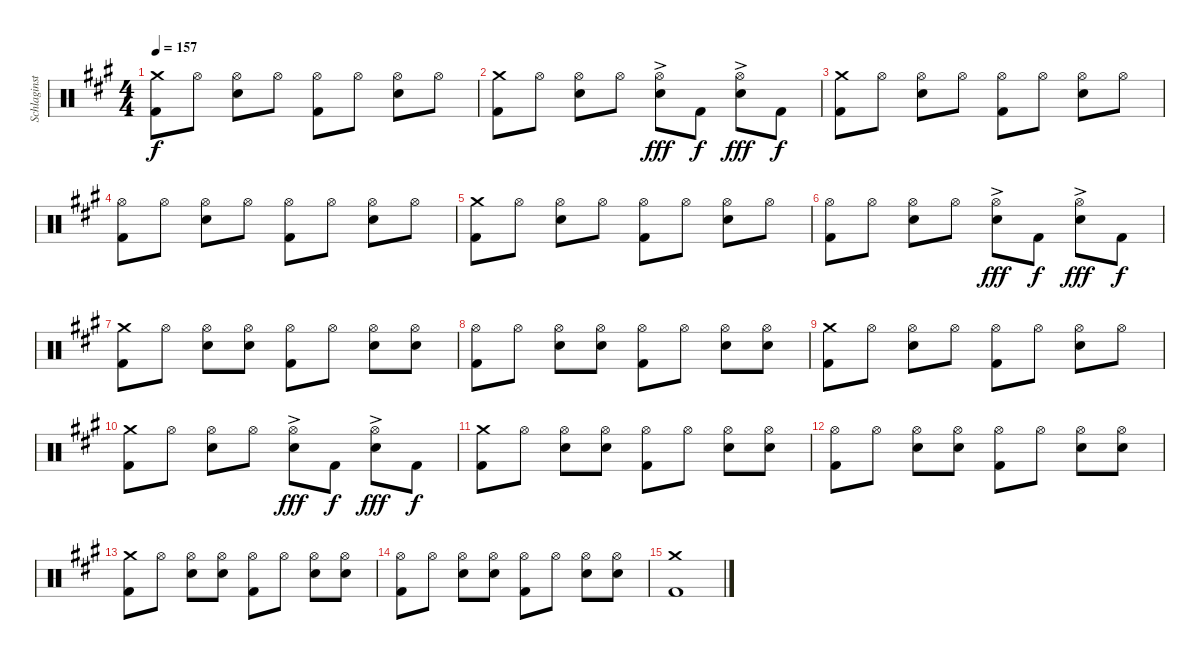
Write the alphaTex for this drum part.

\track ("Schlaginstrumente - Auswahl" "Schlaginst") {instrument percussion}
\staff {score}
\articulation defaults
\ts (4 4)
\tempo 157
\clef neutral
\ks f#minor
("Crash medium (hit)" "Kick (hit) 2").8{dy f} "Hi-Hat (open)".8 ("Hi-Hat (open)" "Electric Snare (hit)").8 "Hi-Hat (open)".8 ("Hi-Hat (open)" "Kick (hit) 2").8 "Hi-Hat (open)".8 ("Hi-Hat (open)" "Electric Snare (hit)").8 "Hi-Hat (open)".8 |
("Crash medium (hit)" "Kick (hit) 2").8 "Hi-Hat (open)".8 ("Hi-Hat (open)" "Electric Snare (hit)").8 "Hi-Hat (open)".8 ("Hi-Hat (open)" "Electric Snare (hit)"{ac}).8{dy fff} "Kick (hit) 2".8{dy f} ("Hi-Hat (open)" "Electric Snare (hit)"{ac}).8{dy fff} "Kick (hit) 2".8{dy f} |
("Crash medium (hit)" "Kick (hit) 2").8 "Hi-Hat (open)".8 ("Hi-Hat (open)" "Electric Snare (hit)").8 "Hi-Hat (open)".8 ("Hi-Hat (open)" "Kick (hit) 2").8 "Hi-Hat (open)".8 ("Hi-Hat (open)" "Electric Snare (hit)").8 "Hi-Hat (open)".8 |
("Hi-Hat (open)" "Kick (hit) 2").8 "Hi-Hat (open)".8 ("Hi-Hat (open)" "Electric Snare (hit)").8 "Hi-Hat (open)".8 ("Hi-Hat (open)" "Kick (hit) 2").8 "Hi-Hat (open)".8 ("Hi-Hat (open)" "Electric Snare (hit)").8 "Hi-Hat (open)".8 |
("Crash medium (hit)" "Kick (hit) 2").8 "Hi-Hat (open)".8 ("Hi-Hat (open)" "Electric Snare (hit)").8 "Hi-Hat (open)".8 ("Hi-Hat (open)" "Kick (hit) 2").8 "Hi-Hat (open)".8 ("Hi-Hat (open)" "Electric Snare (hit)").8 "Hi-Hat (open)".8 |
("Hi-Hat (open)" "Kick (hit) 2").8 "Hi-Hat (open)".8 ("Hi-Hat (open)" "Electric Snare (hit)").8 "Hi-Hat (open)".8 ("Hi-Hat (open)" "Electric Snare (hit)"{ac}).8{dy fff} "Kick (hit) 2".8{dy f} ("Hi-Hat (open)" "Electric Snare (hit)"{ac}).8{dy fff} "Kick (hit) 2".8{dy f} |
("Crash medium (hit)" "Kick (hit) 2").8 "Hi-Hat (open)".8 ("Hi-Hat (open)" "Electric Snare (hit)").8 ("Hi-Hat (open)" "Electric Snare (hit)").8 ("Hi-Hat (open)" "Kick (hit) 2").8 "Hi-Hat (open)".8 ("Hi-Hat (open)" "Electric Snare (hit)").8 ("Hi-Hat (open)" "Electric Snare (hit)").8 |
("Hi-Hat (open)" "Kick (hit) 2").8 "Hi-Hat (open)".8 ("Hi-Hat (open)" "Electric Snare (hit)").8 ("Hi-Hat (open)" "Electric Snare (hit)").8 ("Hi-Hat (open)" "Kick (hit) 2").8 "Hi-Hat (open)".8 ("Hi-Hat (open)" "Electric Snare (hit)").8 ("Hi-Hat (open)" "Electric Snare (hit)").8 |
("Crash medium (hit)" "Kick (hit) 2").8 "Hi-Hat (open)".8 ("Hi-Hat (open)" "Electric Snare (hit)").8 "Hi-Hat (open)".8 ("Hi-Hat (open)" "Kick (hit) 2").8 "Hi-Hat (open)".8 ("Hi-Hat (open)" "Electric Snare (hit)").8 "Hi-Hat (open)".8 |
("Crash medium (hit)" "Kick (hit) 2").8 "Hi-Hat (open)".8 ("Hi-Hat (open)" "Electric Snare (hit)").8 "Hi-Hat (open)".8 ("Hi-Hat (open)" "Electric Snare (hit)"{ac}).8{dy fff} "Kick (hit) 2".8{dy f} ("Hi-Hat (open)" "Electric Snare (hit)"{ac}).8{dy fff} "Kick (hit) 2".8{dy f} |
("Crash medium (hit)" "Kick (hit) 2").8 "Hi-Hat (open)".8 ("Hi-Hat (open)" "Electric Snare (hit)").8 ("Hi-Hat (open)" "Electric Snare (hit)").8 ("Hi-Hat (open)" "Kick (hit) 2").8 "Hi-Hat (open)".8 ("Hi-Hat (open)" "Electric Snare (hit)").8 ("Hi-Hat (open)" "Electric Snare (hit)").8 |
("Hi-Hat (open)" "Kick (hit) 2").8 "Hi-Hat (open)".8 ("Hi-Hat (open)" "Electric Snare (hit)").8 ("Hi-Hat (open)" "Electric Snare (hit)").8 ("Hi-Hat (open)" "Kick (hit) 2").8 "Hi-Hat (open)".8 ("Hi-Hat (open)" "Electric Snare (hit)").8 ("Hi-Hat (open)" "Electric Snare (hit)").8 |
("Crash medium (hit)" "Kick (hit) 2").8 "Hi-Hat (open)".8 ("Hi-Hat (open)" "Electric Snare (hit)").8 ("Hi-Hat (open)" "Electric Snare (hit)").8 ("Hi-Hat (open)" "Kick (hit) 2").8 "Hi-Hat (open)".8 ("Hi-Hat (open)" "Electric Snare (hit)").8 ("Hi-Hat (open)" "Electric Snare (hit)").8 |
("Hi-Hat (open)" "Kick (hit) 2").8 "Hi-Hat (open)".8 ("Hi-Hat (open)" "Electric Snare (hit)").8 ("Hi-Hat (open)" "Electric Snare (hit)").8 ("Hi-Hat (open)" "Kick (hit) 2").8 "Hi-Hat (open)".8 ("Hi-Hat (open)" "Electric Snare (hit)").8 ("Hi-Hat (open)" "Electric Snare (hit)").8 |
("Crash medium (hit)" "Kick (hit) 2").1
